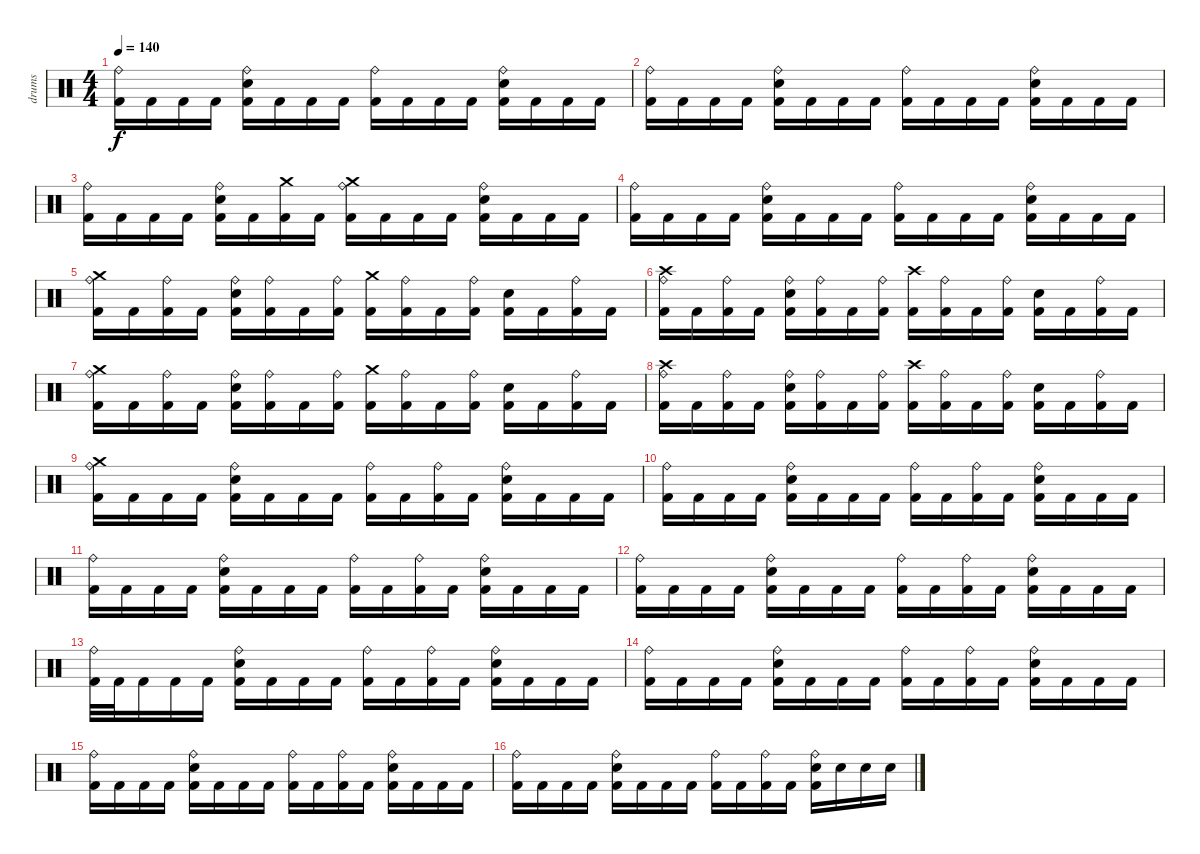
\track ("drums" "drums") {instrument percussion}
\staff {score}
\articulation defaults
\ts (4 4)
\tempo 140
\clef neutral
\ks c
("Ride (bell)" "Kick (hit) 2").16{dy f} "Kick (hit) 2".16 "Kick (hit) 2".16 "Kick (hit) 2".16 ("Ride (bell)" "Electric Snare (hit)" "Kick (hit) 2").16 "Kick (hit) 2".16 "Kick (hit) 2".16 "Kick (hit) 2".16 ("Ride (bell)" "Kick (hit) 2").16 "Kick (hit) 2".16 "Kick (hit) 2".16 "Kick (hit) 2".16 ("Ride (bell)" "Electric Snare (hit)" "Kick (hit) 2").16 "Kick (hit) 2".16 "Kick (hit) 2".16 "Kick (hit) 2".16 |
("Ride (bell)" "Kick (hit) 2").16 "Kick (hit) 2".16 "Kick (hit) 2".16 "Kick (hit) 2".16 ("Ride (bell)" "Electric Snare (hit)" "Kick (hit) 2").16 "Kick (hit) 2".16 "Kick (hit) 2".16 "Kick (hit) 2".16 ("Ride (bell)" "Kick (hit) 2").16 "Kick (hit) 2".16 "Kick (hit) 2".16 "Kick (hit) 2".16 ("Ride (bell)" "Electric Snare (hit)" "Kick (hit) 2").16 "Kick (hit) 2".16 "Kick (hit) 2".16 "Kick (hit) 2".16 |
("Ride (bell)" "Kick (hit) 2").16 "Kick (hit) 2".16 "Kick (hit) 2".16 "Kick (hit) 2".16 ("Ride (bell)" "Electric Snare (hit)" "Kick (hit) 2").16 "Kick (hit) 2".16 ("Crash medium (hit)" "Kick (hit) 2").16 "Kick (hit) 2".16 ("Crash medium (hit)" "Ride (bell)" "Kick (hit) 2").16 "Kick (hit) 2".16 "Kick (hit) 2".16 "Kick (hit) 2".16 ("Ride (bell)" "Electric Snare (hit)" "Kick (hit) 2").16 "Kick (hit) 2".16 "Kick (hit) 2".16 "Kick (hit) 2".16 |
("Ride (bell)" "Kick (hit) 2").16 "Kick (hit) 2".16 "Kick (hit) 2".16 "Kick (hit) 2".16 ("Ride (bell)" "Electric Snare (hit)" "Kick (hit) 2").16 "Kick (hit) 2".16 "Kick (hit) 2".16 "Kick (hit) 2".16 ("Ride (bell)" "Kick (hit) 2").16 "Kick (hit) 2".16 "Kick (hit) 2".16 "Kick (hit) 2".16 ("Ride (bell)" "Electric Snare (hit)" "Kick (hit) 2").16 "Kick (hit) 2".16 "Kick (hit) 2".16 "Kick (hit) 2".16 |
("Crash medium (hit)" "Ride (bell)" "Kick (hit) 2").16 "Kick (hit) 2".16 ("Ride (bell)" "Kick (hit) 2").16 "Kick (hit) 2".16 ("Ride (bell)" "Electric Snare (hit)" "Kick (hit) 2").16 ("Ride (bell)" "Kick (hit) 2").16 "Kick (hit) 2".16 ("Ride (bell)" "Kick (hit) 2").16 ("Crash medium (hit)" "Kick (hit) 2").16 ("Ride (bell)" "Kick (hit) 2").16 "Kick (hit) 2".16 ("Ride (bell)" "Kick (hit) 2").16 ("Electric Snare (hit)" "Kick (hit) 2").16 "Kick (hit) 2".16 ("Ride (bell)" "Kick (hit) 2").16 "Kick (hit) 2".16 |
("Crash high (hit)" "Ride (bell)" "Kick (hit) 2").16 "Kick (hit) 2".16 ("Ride (bell)" "Kick (hit) 2").16 "Kick (hit) 2".16 ("Ride (bell)" "Electric Snare (hit)" "Kick (hit) 2").16 ("Ride (bell)" "Kick (hit) 2").16 "Kick (hit) 2".16 ("Ride (bell)" "Kick (hit) 2").16 ("Crash high (hit)" "Kick (hit) 2").16 ("Ride (bell)" "Kick (hit) 2").16 "Kick (hit) 2".16 ("Ride (bell)" "Kick (hit) 2").16 ("Electric Snare (hit)" "Kick (hit) 2").16 "Kick (hit) 2".16 ("Ride (bell)" "Kick (hit) 2").16 "Kick (hit) 2".16 |
("Crash medium (hit)" "Ride (bell)" "Kick (hit) 2").16 "Kick (hit) 2".16 ("Ride (bell)" "Kick (hit) 2").16 "Kick (hit) 2".16 ("Ride (bell)" "Electric Snare (hit)" "Kick (hit) 2").16 ("Ride (bell)" "Kick (hit) 2").16 "Kick (hit) 2".16 ("Ride (bell)" "Kick (hit) 2").16 ("Crash medium (hit)" "Kick (hit) 2").16 ("Ride (bell)" "Kick (hit) 2").16 "Kick (hit) 2".16 ("Ride (bell)" "Kick (hit) 2").16 ("Electric Snare (hit)" "Kick (hit) 2").16 "Kick (hit) 2".16 ("Ride (bell)" "Kick (hit) 2").16 "Kick (hit) 2".16 |
("Crash high (hit)" "Ride (bell)" "Kick (hit) 2").16 "Kick (hit) 2".16 ("Ride (bell)" "Kick (hit) 2").16 "Kick (hit) 2".16 ("Ride (bell)" "Electric Snare (hit)" "Kick (hit) 2").16 ("Ride (bell)" "Kick (hit) 2").16 "Kick (hit) 2".16 ("Ride (bell)" "Kick (hit) 2").16 ("Crash high (hit)" "Kick (hit) 2").16 ("Ride (bell)" "Kick (hit) 2").16 "Kick (hit) 2".16 ("Ride (bell)" "Kick (hit) 2").16 ("Electric Snare (hit)" "Kick (hit) 2").16 "Kick (hit) 2".16 ("Ride (bell)" "Kick (hit) 2").16 "Kick (hit) 2".16 |
("Crash medium (hit)" "Ride (bell)" "Kick (hit) 2").16 "Kick (hit) 2".16 "Kick (hit) 2".16 "Kick (hit) 2".16 ("Ride (bell)" "Electric Snare (hit)" "Kick (hit) 2").16 "Kick (hit) 2".16 "Kick (hit) 2".16 "Kick (hit) 2".16 ("Ride (bell)" "Kick (hit) 2").16 "Kick (hit) 2".16 ("Ride (bell)" "Kick (hit) 2").16 "Kick (hit) 2".16 ("Ride (bell)" "Electric Snare (hit)" "Kick (hit) 2").16 "Kick (hit) 2".16 "Kick (hit) 2".16 "Kick (hit) 2".16 |
("Ride (bell)" "Kick (hit) 2").16 "Kick (hit) 2".16 "Kick (hit) 2".16 "Kick (hit) 2".16 ("Ride (bell)" "Electric Snare (hit)" "Kick (hit) 2").16 "Kick (hit) 2".16 "Kick (hit) 2".16 "Kick (hit) 2".16 ("Ride (bell)" "Kick (hit) 2").16 "Kick (hit) 2".16 ("Ride (bell)" "Kick (hit) 2").16 "Kick (hit) 2".16 ("Ride (bell)" "Electric Snare (hit)" "Kick (hit) 2").16 "Kick (hit) 2".16 "Kick (hit) 2".16 "Kick (hit) 2".16 |
("Ride (bell)" "Kick (hit) 2").16 "Kick (hit) 2".16 "Kick (hit) 2".16 "Kick (hit) 2".16 ("Ride (bell)" "Electric Snare (hit)" "Kick (hit) 2").16 "Kick (hit) 2".16 "Kick (hit) 2".16 "Kick (hit) 2".16 ("Ride (bell)" "Kick (hit) 2").16 "Kick (hit) 2".16 ("Ride (bell)" "Kick (hit) 2").16 "Kick (hit) 2".16 ("Ride (bell)" "Electric Snare (hit)" "Kick (hit) 2").16 "Kick (hit) 2".16 "Kick (hit) 2".16 "Kick (hit) 2".16 |
("Ride (bell)" "Kick (hit) 2").16 "Kick (hit) 2".16 "Kick (hit) 2".16 "Kick (hit) 2".16 ("Ride (bell)" "Electric Snare (hit)" "Kick (hit) 2").16 "Kick (hit) 2".16 "Kick (hit) 2".16 "Kick (hit) 2".16 ("Ride (bell)" "Kick (hit) 2").16 "Kick (hit) 2".16 ("Ride (bell)" "Kick (hit) 2").16 "Kick (hit) 2".16 ("Ride (bell)" "Electric Snare (hit)" "Kick (hit) 2").16 "Kick (hit) 2".16 "Kick (hit) 2".16 "Kick (hit) 2".16 |
("Ride (bell)" "Kick (hit) 2").32 "Kick (hit) 2".32 "Kick (hit) 2".16 "Kick (hit) 2".16 "Kick (hit) 2".16 ("Ride (bell)" "Electric Snare (hit)" "Kick (hit) 2").16 "Kick (hit) 2".16 "Kick (hit) 2".16 "Kick (hit) 2".16 ("Ride (bell)" "Kick (hit) 2").16 "Kick (hit) 2".16 ("Ride (bell)" "Kick (hit) 2").16 "Kick (hit) 2".16 ("Ride (bell)" "Electric Snare (hit)" "Kick (hit) 2").16 "Kick (hit) 2".16 "Kick (hit) 2".16 "Kick (hit) 2".16 |
("Ride (bell)" "Kick (hit) 2").16 "Kick (hit) 2".16 "Kick (hit) 2".16 "Kick (hit) 2".16 ("Ride (bell)" "Electric Snare (hit)" "Kick (hit) 2").16 "Kick (hit) 2".16 "Kick (hit) 2".16 "Kick (hit) 2".16 ("Ride (bell)" "Kick (hit) 2").16 "Kick (hit) 2".16 ("Ride (bell)" "Kick (hit) 2").16 "Kick (hit) 2".16 ("Ride (bell)" "Electric Snare (hit)" "Kick (hit) 2").16 "Kick (hit) 2".16 "Kick (hit) 2".16 "Kick (hit) 2".16 |
("Ride (bell)" "Kick (hit) 2").16 "Kick (hit) 2".16 "Kick (hit) 2".16 "Kick (hit) 2".16 ("Ride (bell)" "Electric Snare (hit)" "Kick (hit) 2").16 "Kick (hit) 2".16 "Kick (hit) 2".16 "Kick (hit) 2".16 ("Ride (bell)" "Kick (hit) 2").16 "Kick (hit) 2".16 ("Ride (bell)" "Kick (hit) 2").16 "Kick (hit) 2".16 ("Ride (bell)" "Electric Snare (hit)" "Kick (hit) 2").16 "Kick (hit) 2".16 "Kick (hit) 2".16 "Kick (hit) 2".16 |
("Ride (bell)" "Kick (hit) 2").16 "Kick (hit) 2".16 "Kick (hit) 2".16 "Kick (hit) 2".16 ("Ride (bell)" "Electric Snare (hit)" "Kick (hit) 2").16 "Kick (hit) 2".16 "Kick (hit) 2".16 "Kick (hit) 2".16 ("Ride (bell)" "Kick (hit) 2").16 "Kick (hit) 2".16 ("Ride (bell)" "Kick (hit) 2").16 "Kick (hit) 2".16 ("Ride (bell)" "Electric Snare (hit)" "Kick (hit) 2").16 "Electric Snare (hit)".16 "Electric Snare (hit)".16 "Electric Snare (hit)".16
